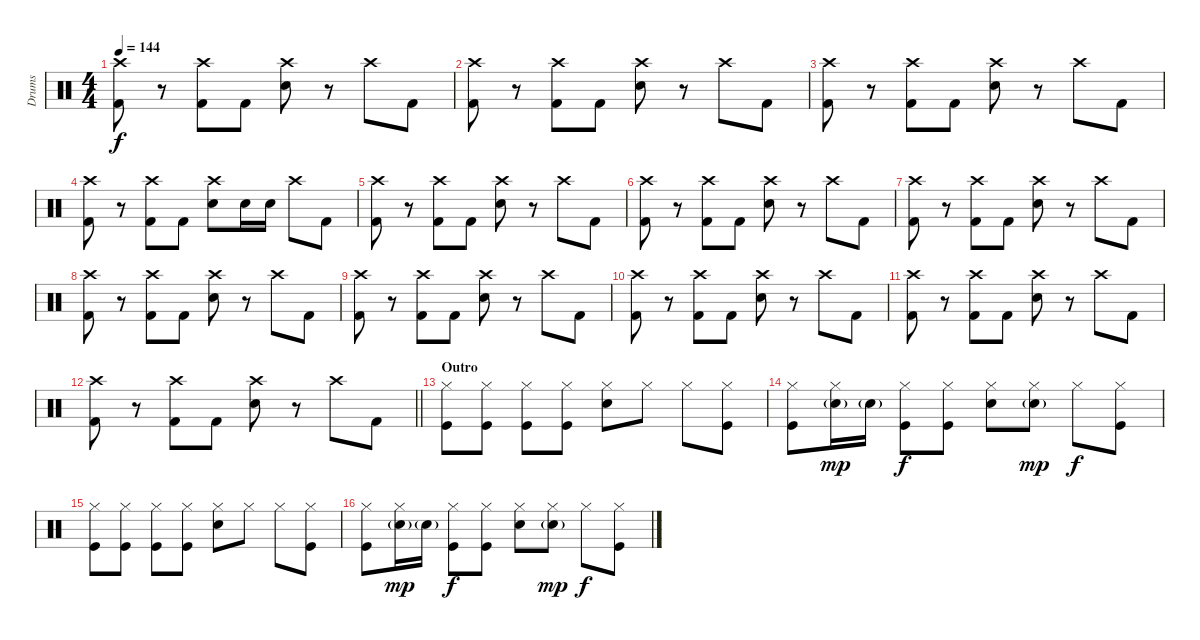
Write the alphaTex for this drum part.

\track ("Drums" "Drums") {instrument percussion}
\staff {score}
\articulation defaults
\ts (4 4)
\tempo 144
\clef neutral
\ks c
("Crash high (hit)" "Kick (hit) 2").8{dy f} r.8 ("Crash high (hit)" "Kick (hit) 2").8 "Kick (hit) 2".8 ("Crash high (hit)" "Electric Snare (hit)").8 r.8 "Crash high (hit)".8 "Kick (hit) 2".8 |
("Crash high (hit)" "Kick (hit) 2").8 r.8 ("Crash high (hit)" "Kick (hit) 2").8 "Kick (hit) 2".8 ("Crash high (hit)" "Electric Snare (hit)").8 r.8 "Crash high (hit)".8 "Kick (hit) 2".8 |
("Crash high (hit)" "Kick (hit) 2").8 r.8 ("Crash high (hit)" "Kick (hit) 2").8 "Kick (hit) 2".8 ("Crash high (hit)" "Electric Snare (hit)").8 r.8 "Crash high (hit)".8 "Kick (hit) 2".8 |
("Crash high (hit)" "Kick (hit) 2").8 r.8 ("Crash high (hit)" "Kick (hit) 2").8 "Kick (hit) 2".8 ("Crash high (hit)" "Electric Snare (hit)").8 "Electric Snare (hit)".16 "Electric Snare (hit)".16 "Crash high (hit)".8 "Kick (hit) 2".8 |
("Crash high (hit)" "Kick (hit) 2").8 r.8 ("Crash high (hit)" "Kick (hit) 2").8 "Kick (hit) 2".8 ("Crash high (hit)" "Electric Snare (hit)").8 r.8 "Crash high (hit)".8 "Kick (hit) 2".8 |
("Crash high (hit)" "Kick (hit) 2").8 r.8 ("Crash high (hit)" "Kick (hit) 2").8 "Kick (hit) 2".8 ("Crash high (hit)" "Electric Snare (hit)").8 r.8 "Crash high (hit)".8 "Kick (hit) 2".8 |
("Crash high (hit)" "Kick (hit) 2").8 r.8 ("Crash high (hit)" "Kick (hit) 2").8 "Kick (hit) 2".8 ("Crash high (hit)" "Electric Snare (hit)").8 r.8 "Crash high (hit)".8 "Kick (hit) 2".8 |
("Crash high (hit)" "Kick (hit) 2").8 r.8 ("Crash high (hit)" "Kick (hit) 2").8 "Kick (hit) 2".8 ("Crash high (hit)" "Electric Snare (hit)").8 r.8 "Crash high (hit)".8 "Kick (hit) 2".8 |
("Crash high (hit)" "Kick (hit) 2").8 r.8 ("Crash high (hit)" "Kick (hit) 2").8 "Kick (hit) 2".8 ("Crash high (hit)" "Electric Snare (hit)").8 r.8 "Crash high (hit)".8 "Kick (hit) 2".8 |
("Crash high (hit)" "Kick (hit) 2").8 r.8 ("Crash high (hit)" "Kick (hit) 2").8 "Kick (hit) 2".8 ("Crash high (hit)" "Electric Snare (hit)").8 r.8 "Crash high (hit)".8 "Kick (hit) 2".8 |
("Crash high (hit)" "Kick (hit) 2").8 r.8 ("Crash high (hit)" "Kick (hit) 2").8 "Kick (hit) 2".8 ("Crash high (hit)" "Electric Snare (hit)").8 r.8 "Crash high (hit)".8 "Kick (hit) 2".8 |
\barLineRight lightlight
("Crash high (hit)" "Kick (hit) 2").8 r.8 ("Crash high (hit)" "Kick (hit) 2").8 "Kick (hit) 2".8 ("Crash high (hit)" "Electric Snare (hit)").8 r.8 "Crash high (hit)".8 "Kick (hit) 2".8 |
\section ("" "Outro")
("Hi-Hat (closed)" "Kick (hit)").8{volume 9} ("Hi-Hat (closed)" "Kick (hit)").8 ("Hi-Hat (closed)" "Kick (hit)").8 ("Hi-Hat (closed)" "Kick (hit)").8 ("Hi-Hat (closed)" "Snare (hit) 2").8 "Hi-Hat (closed)".8 "Hi-Hat (closed)".8 ("Hi-Hat (closed)" "Kick (hit)").8 |
("Hi-Hat (closed)" "Kick (hit)").8 ("Hi-Hat (closed)" "Electric Snare (hit)"{g}).16{dy mp} "Electric Snare (hit)"{g}.16 ("Hi-Hat (closed)" "Kick (hit)").8{dy f} ("Hi-Hat (closed)" "Kick (hit)").8 ("Hi-Hat (closed)" "Snare (hit) 2").8 ("Hi-Hat (closed)" "Electric Snare (hit)"{g}).8{dy mp} "Hi-Hat (closed)".8{dy f} ("Hi-Hat (closed)" "Kick (hit)").8 |
("Hi-Hat (closed)" "Kick (hit)").8 ("Hi-Hat (closed)" "Kick (hit)").8 ("Hi-Hat (closed)" "Kick (hit)").8 ("Hi-Hat (closed)" "Kick (hit)").8 ("Hi-Hat (closed)" "Snare (hit) 2").8 "Hi-Hat (closed)".8 "Hi-Hat (closed)".8 ("Hi-Hat (closed)" "Kick (hit)").8 |
("Hi-Hat (closed)" "Kick (hit)").8 ("Hi-Hat (closed)" "Electric Snare (hit)"{g}).16{dy mp} "Electric Snare (hit)"{g}.16 ("Hi-Hat (closed)" "Kick (hit)").8{dy f} ("Hi-Hat (closed)" "Kick (hit)").8 ("Hi-Hat (closed)" "Snare (hit) 2").8 ("Hi-Hat (closed)" "Electric Snare (hit)"{g}).8{dy mp} "Hi-Hat (closed)".8{dy f} ("Hi-Hat (closed)" "Kick (hit)").8
